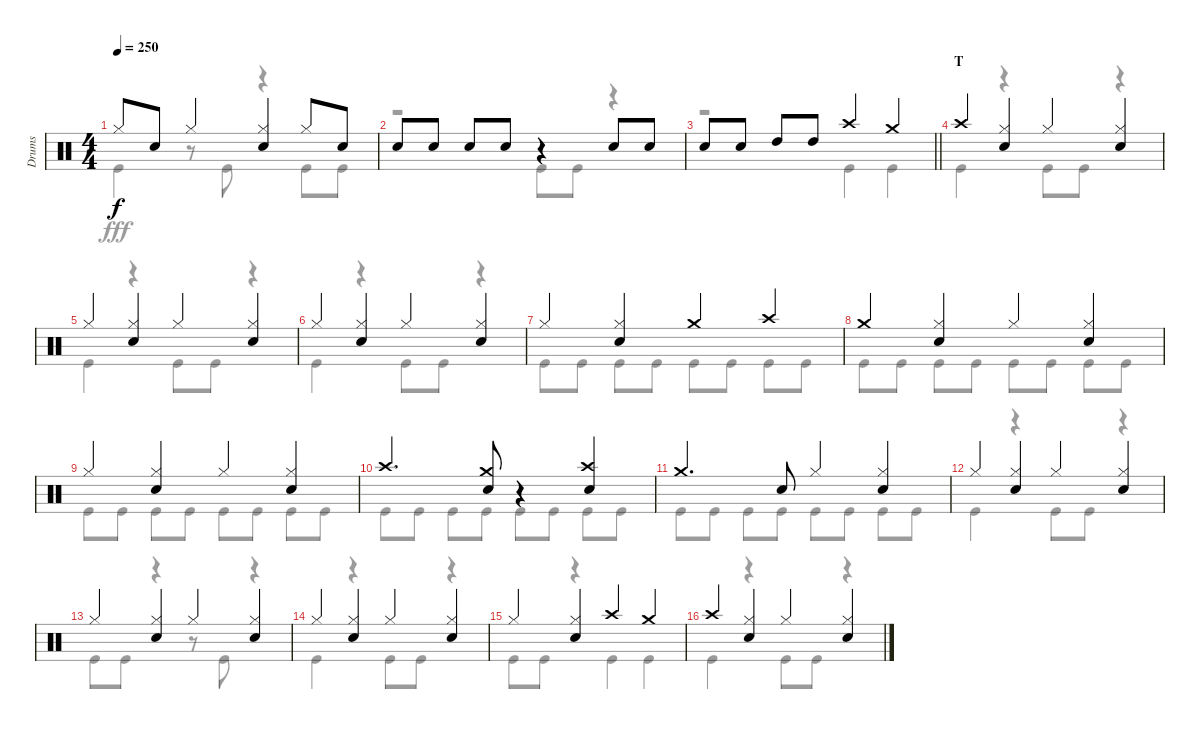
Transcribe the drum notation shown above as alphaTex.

\track ("Drums" "Drums") {instrument percussion}
\staff {score}
\articulation defaults
\voice
\ts (4 4)
\tempo 250
\clef neutral
\ks c "Hi-Hat (closed)".8{dy f} "Snare (hit) 2".8 "Hi-Hat (closed)".4
("Hi-Hat (closed)" "Snare (hit) 2").4 "Hi-Hat (closed)".8 "Snare (hit) 2".8 |
"Snare (hit) 2".8 "Snare (hit) 2".8 "Snare (hit) 2".8 "Snare (hit) 2".8 r.4 "Snare (hit) 2".8 "Snare (hit) 2".8 |
\barLineRight lightlight "Snare (hit) 2".8 "Snare (hit) 2".8 "High Tom (hit)".8 "High Tom (hit)".8 "Crash high (hit)".4 "Crash medium (hit)".4
|
\section ("" "T")
"Crash high (hit)".4 ("Hi-Hat (closed)" "Snare (hit) 2").4 "Hi-Hat (closed)".4 ("Hi-Hat (closed)" "Snare (hit) 2").4 |
"Hi-Hat (closed)".4 ("Hi-Hat (closed)" "Snare (hit) 2").4 "Hi-Hat (closed)".4 ("Hi-Hat (closed)" "Snare (hit) 2").4 |
"Hi-Hat (closed)".4 ("Hi-Hat (closed)" "Snare (hit) 2").4 "Hi-Hat (closed)".4 ("Hi-Hat (closed)" "Snare (hit) 2").4 |
"Hi-Hat (closed)".4 ("Hi-Hat (closed)" "Snare (hit) 2").4 "Crash medium (hit)".4 "Crash high (hit)".4 |
"Crash medium (hit)".4 ("Hi-Hat (closed)" "Snare (hit) 2").4 "Hi-Hat (closed)".4 ("Hi-Hat (closed)" "Snare (hit) 2").4 |
"Hi-Hat (closed)".4 ("Hi-Hat (closed)" "Snare (hit) 2").4 "Hi-Hat (closed)".4 ("Hi-Hat (closed)" "Snare (hit) 2").4 |
"Crash high (hit)".4{d} ("Crash medium (hit)" "Snare (hit) 2").8 r.4 ("Crash high (hit)" "Snare (hit) 2").4 |
"Crash medium (hit)".4{d} "Snare (hit) 2".8 "Hi-Hat (closed)".4 ("Hi-Hat (closed)" "Snare (hit) 2").4 |
"Hi-Hat (closed)".4 ("Hi-Hat (closed)" "Snare (hit) 2").4 "Hi-Hat (closed)".4 ("Hi-Hat (closed)" "Snare (hit) 2").4 |
"Hi-Hat (closed)".4 ("Hi-Hat (closed)" "Snare (hit) 2").4 "Hi-Hat (closed)".4 ("Hi-Hat (closed)" "Snare (hit) 2").4 |
"Hi-Hat (closed)".4 ("Hi-Hat (closed)" "Snare (hit) 2").4 "Hi-Hat (closed)".4 ("Hi-Hat (closed)" "Snare (hit) 2").4 |
"Hi-Hat (closed)".4 ("Hi-Hat (closed)" "Snare (hit) 2").4 "Crash high (hit)".4 "Crash medium (hit)".4 |
"Crash high (hit)".4 ("Hi-Hat (closed)" "Snare (hit) 2").4 "Hi-Hat (closed)".4 ("Hi-Hat (closed)" "Snare (hit) 2").4
\voice
\clef neutral
\ottava regular
\simile none
\ks c "Kick (hit)".4{dy fff}
r.8 "Kick (hit)".8 r.4 "Kick (hit)".8 "Kick (hit)".8 |
r.2 "Kick (hit)".8 "Kick (hit)".8 r.4 |
\barLineRight lightlight
r.2 "Kick (hit)".4 "Kick (hit)".4 |
"Kick (hit)".4 r.4 "Kick (hit)".8 "Kick (hit)".8 r.4 |
"Kick (hit)".4 r.4 "Kick (hit)".8 "Kick (hit)".8 r.4 |
"Kick (hit)".4 r.4 "Kick (hit)".8 "Kick (hit)".8 r.4 |
"Kick (hit)".8 "Kick (hit)".8 "Kick (hit)".8 "Kick (hit)".8 "Kick (hit)".8 "Kick (hit)".8 "Kick (hit)".8 "Kick (hit)".8 |
"Kick (hit)".8 "Kick (hit)".8 "Kick (hit)".8 "Kick (hit)".8 "Kick (hit)".8 "Kick (hit)".8 "Kick (hit)".8 "Kick (hit)".8 |
"Kick (hit)".8 "Kick (hit)".8 "Kick (hit)".8 "Kick (hit)".8 "Kick (hit)".8 "Kick (hit)".8 "Kick (hit)".8 "Kick (hit)".8 |
"Kick (hit)".8 "Kick (hit)".8 "Kick (hit)".8 "Kick (hit)".8 "Kick (hit)".8 "Kick (hit)".8 "Kick (hit)".8 "Kick (hit)".8 |
"Kick (hit)".8 "Kick (hit)".8 "Kick (hit)".8 "Kick (hit)".8 "Kick (hit)".8 "Kick (hit)".8 "Kick (hit)".8 "Kick (hit)".8 |
"Kick (hit)".4 r.4 "Kick (hit)".8 "Kick (hit)".8 r.4 |
"Kick (hit)".8 "Kick (hit)".8 r.4 r.8 "Kick (hit)".8 r.4 |
"Kick (hit)".4 r.4 "Kick (hit)".8 "Kick (hit)".8 r.4 |
"Kick (hit)".8 "Kick (hit)".8 r.4 "Kick (hit)".4 "Kick (hit)".4 |
"Kick (hit)".4 r.4 "Kick (hit)".8 "Kick (hit)".8 r.4
